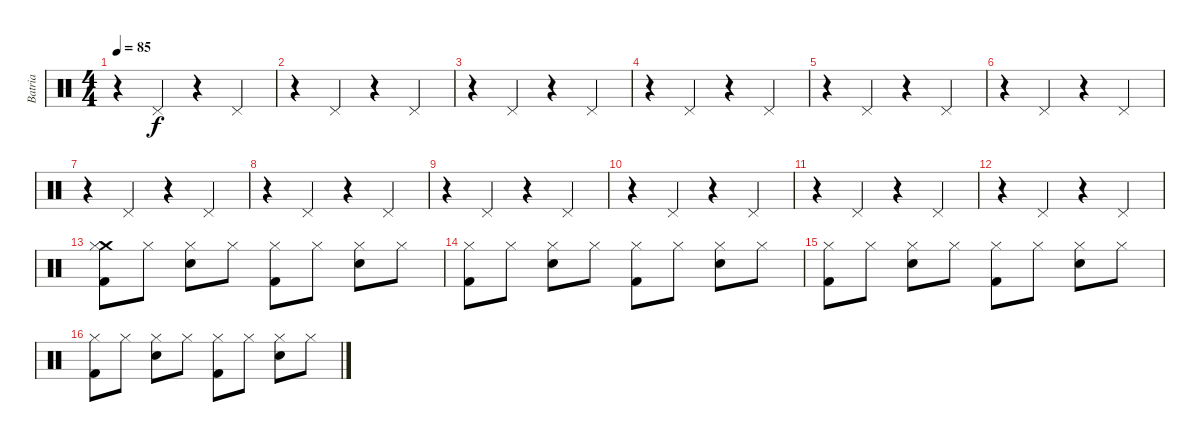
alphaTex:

\track ("Batria" "Batria") {instrument percussion}
\staff {score}
\articulation defaults
\ts (4 4)
\tempo 85
\clef neutral
\ks c
r.4{dy f} "Pedal Hi-Hat (hit)".4 r.4 "Pedal Hi-Hat (hit)".4 |
r.4 "Pedal Hi-Hat (hit)".4 r.4 "Pedal Hi-Hat (hit)".4 |
r.4 "Pedal Hi-Hat (hit)".4 r.4 "Pedal Hi-Hat (hit)".4 |
r.4 "Pedal Hi-Hat (hit)".4 r.4 "Pedal Hi-Hat (hit)".4 |
r.4 "Pedal Hi-Hat (hit)".4 r.4 "Pedal Hi-Hat (hit)".4 |
r.4 "Pedal Hi-Hat (hit)".4 r.4 "Pedal Hi-Hat (hit)".4 |
r.4 "Pedal Hi-Hat (hit)".4 r.4 "Pedal Hi-Hat (hit)".4 |
r.4 "Pedal Hi-Hat (hit)".4 r.4 "Pedal Hi-Hat (hit)".4 |
r.4 "Pedal Hi-Hat (hit)".4 r.4 "Pedal Hi-Hat (hit)".4 |
r.4 "Pedal Hi-Hat (hit)".4 r.4 "Pedal Hi-Hat (hit)".4 |
r.4 "Pedal Hi-Hat (hit)".4 r.4 "Pedal Hi-Hat (hit)".4 |
r.4 "Pedal Hi-Hat (hit)".4 r.4 "Pedal Hi-Hat (hit)".4 |
("Crash medium (hit)" "Hi-Hat (closed)" "Kick (hit) 2").8 "Hi-Hat (closed)".8 ("Hi-Hat (closed)" "Snare (hit) 2").8 "Hi-Hat (closed)".8 ("Hi-Hat (closed)" "Kick (hit) 2").8 "Hi-Hat (closed)".8 ("Hi-Hat (closed)" "Snare (hit) 2").8 "Hi-Hat (closed)".8 |
("Hi-Hat (closed)" "Kick (hit) 2").8 "Hi-Hat (closed)".8 ("Hi-Hat (closed)" "Snare (hit) 2").8 "Hi-Hat (closed)".8 ("Hi-Hat (closed)" "Kick (hit) 2").8 "Hi-Hat (closed)".8 ("Hi-Hat (closed)" "Snare (hit) 2").8 "Hi-Hat (closed)".8 |
("Hi-Hat (closed)" "Kick (hit) 2").8 "Hi-Hat (closed)".8 ("Hi-Hat (closed)" "Snare (hit) 2").8 "Hi-Hat (closed)".8 ("Hi-Hat (closed)" "Kick (hit) 2").8 "Hi-Hat (closed)".8 ("Hi-Hat (closed)" "Snare (hit) 2").8 "Hi-Hat (closed)".8 |
("Hi-Hat (closed)" "Kick (hit) 2").8 "Hi-Hat (closed)".8 ("Hi-Hat (closed)" "Snare (hit) 2").8 "Hi-Hat (closed)".8 ("Hi-Hat (closed)" "Kick (hit) 2").8 "Hi-Hat (closed)".8 ("Hi-Hat (closed)" "Snare (hit) 2").8 "Hi-Hat (closed)".8
